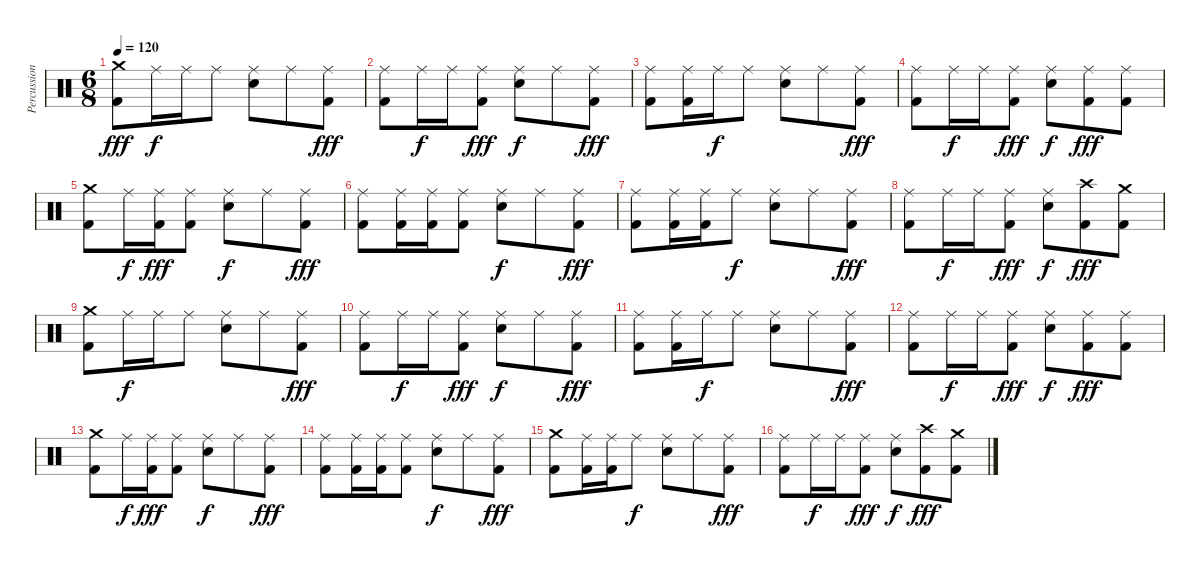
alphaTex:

\track ("Percussion" "Percussion") {instrument percussion}
\staff {score}
\articulation defaults
\ts (6 8)
\tempo 120
\clef neutral
\ks c
("Crash medium (hit)" "Kick (hit) 2").8{dy fff} "Ride (middle)".16{dy f} "Ride (middle)".16 "Ride (middle)".8 ("Ride (middle)" "Electric Snare (hit)").8 "Ride (middle)".8 ("Ride (middle)" "Kick (hit) 2").8{dy fff} |
("Ride (middle)" "Kick (hit) 2").8 "Ride (middle)".16{dy f} "Ride (middle)".16 ("Ride (middle)" "Kick (hit) 2").8{dy fff} ("Ride (middle)" "Electric Snare (hit)").8{dy f} "Ride (middle)".8 ("Ride (middle)" "Kick (hit) 2").8{dy fff} |
("Ride (middle)" "Kick (hit) 2").8 ("Ride (middle)" "Kick (hit) 2").16 "Ride (middle)".16{dy f} "Ride (middle)".8 ("Ride (middle)" "Electric Snare (hit)").8 "Ride (middle)".8 ("Ride (middle)" "Kick (hit) 2").8{dy fff} |
("Ride (middle)" "Kick (hit) 2").8 "Ride (middle)".16{dy f} "Ride (middle)".16 ("Ride (middle)" "Kick (hit) 2").8{dy fff} ("Ride (middle)" "Electric Snare (hit)").8{dy f} ("Ride (middle)" "Kick (hit) 2").8{dy fff} ("Ride (middle)" "Kick (hit) 2").8 |
("Crash medium (hit)" "Kick (hit) 2").8 "Ride (middle)".16{dy f} ("Ride (middle)" "Kick (hit) 2").16{dy fff} ("Ride (middle)" "Kick (hit) 2").8 ("Ride (middle)" "Electric Snare (hit)").8{dy f} "Ride (middle)".8 ("Ride (middle)" "Kick (hit) 2").8{dy fff} |
("Ride (middle)" "Kick (hit) 2").8 ("Ride (middle)" "Kick (hit) 2").16 ("Ride (middle)" "Kick (hit) 2").16 ("Ride (middle)" "Kick (hit) 2").8 ("Ride (middle)" "Electric Snare (hit)").8{dy f} "Ride (middle)".8 ("Ride (middle)" "Kick (hit) 2").8{dy fff} |
("Ride (middle)" "Kick (hit) 2").8 ("Ride (middle)" "Kick (hit) 2").16 ("Ride (middle)" "Kick (hit) 2").16 "Ride (middle)".8{dy f} ("Ride (middle)" "Electric Snare (hit)").8 "Ride (middle)".8 ("Ride (middle)" "Kick (hit) 2").8{dy fff} |
("Ride (middle)" "Kick (hit) 2").8 "Ride (middle)".16{dy f} "Ride (middle)".16 ("Ride (middle)" "Kick (hit) 2").8{dy fff} ("Ride (middle)" "Electric Snare (hit)").8{dy f} ("Crash high (hit)" "Kick (hit) 2").8{dy fff} ("Crash medium (hit)" "Kick (hit) 2").8 |
("Crash medium (hit)" "Kick (hit) 2").8 "Ride (middle)".16{dy f} "Ride (middle)".16 "Ride (middle)".8 ("Ride (middle)" "Electric Snare (hit)").8 "Ride (middle)".8 ("Ride (middle)" "Kick (hit) 2").8{dy fff} |
("Ride (middle)" "Kick (hit) 2").8 "Ride (middle)".16{dy f} "Ride (middle)".16 ("Ride (middle)" "Kick (hit) 2").8{dy fff} ("Ride (middle)" "Electric Snare (hit)").8{dy f} "Ride (middle)".8 ("Ride (middle)" "Kick (hit) 2").8{dy fff} |
("Ride (middle)" "Kick (hit) 2").8 ("Ride (middle)" "Kick (hit) 2").16 "Ride (middle)".16{dy f} "Ride (middle)".8 ("Ride (middle)" "Electric Snare (hit)").8 "Ride (middle)".8 ("Ride (middle)" "Kick (hit) 2").8{dy fff} |
("Ride (middle)" "Kick (hit) 2").8 "Ride (middle)".16{dy f} "Ride (middle)".16 ("Ride (middle)" "Kick (hit) 2").8{dy fff} ("Ride (middle)" "Electric Snare (hit)").8{dy f} ("Ride (middle)" "Kick (hit) 2").8{dy fff} ("Ride (middle)" "Kick (hit) 2").8 |
("Crash medium (hit)" "Kick (hit) 2").8 "Ride (middle)".16{dy f} ("Ride (middle)" "Kick (hit) 2").16{dy fff} ("Ride (middle)" "Kick (hit) 2").8 ("Ride (middle)" "Electric Snare (hit)").8{dy f} "Ride (middle)".8 ("Ride (middle)" "Kick (hit) 2").8{dy fff} |
("Ride (middle)" "Kick (hit) 2").8 ("Ride (middle)" "Kick (hit) 2").16 ("Ride (middle)" "Kick (hit) 2").16 ("Ride (middle)" "Kick (hit) 2").8 ("Ride (middle)" "Electric Snare (hit)").8{dy f} "Ride (middle)".8 ("Ride (middle)" "Kick (hit) 2").8{dy fff} |
("Crash medium (hit)" "Kick (hit) 2").8 ("Ride (middle)" "Kick (hit) 2").16 ("Ride (middle)" "Kick (hit) 2").16 "Ride (middle)".8{dy f} ("Ride (middle)" "Electric Snare (hit)").8 "Ride (middle)".8 ("Ride (middle)" "Kick (hit) 2").8{dy fff} |
("Ride (middle)" "Kick (hit) 2").8 "Ride (middle)".16{dy f} "Ride (middle)".16 ("Ride (middle)" "Kick (hit) 2").8{dy fff} ("Ride (middle)" "Electric Snare (hit)").8{dy f} ("Crash high (hit)" "Kick (hit) 2").8{dy fff} ("Crash medium (hit)" "Kick (hit) 2").8
